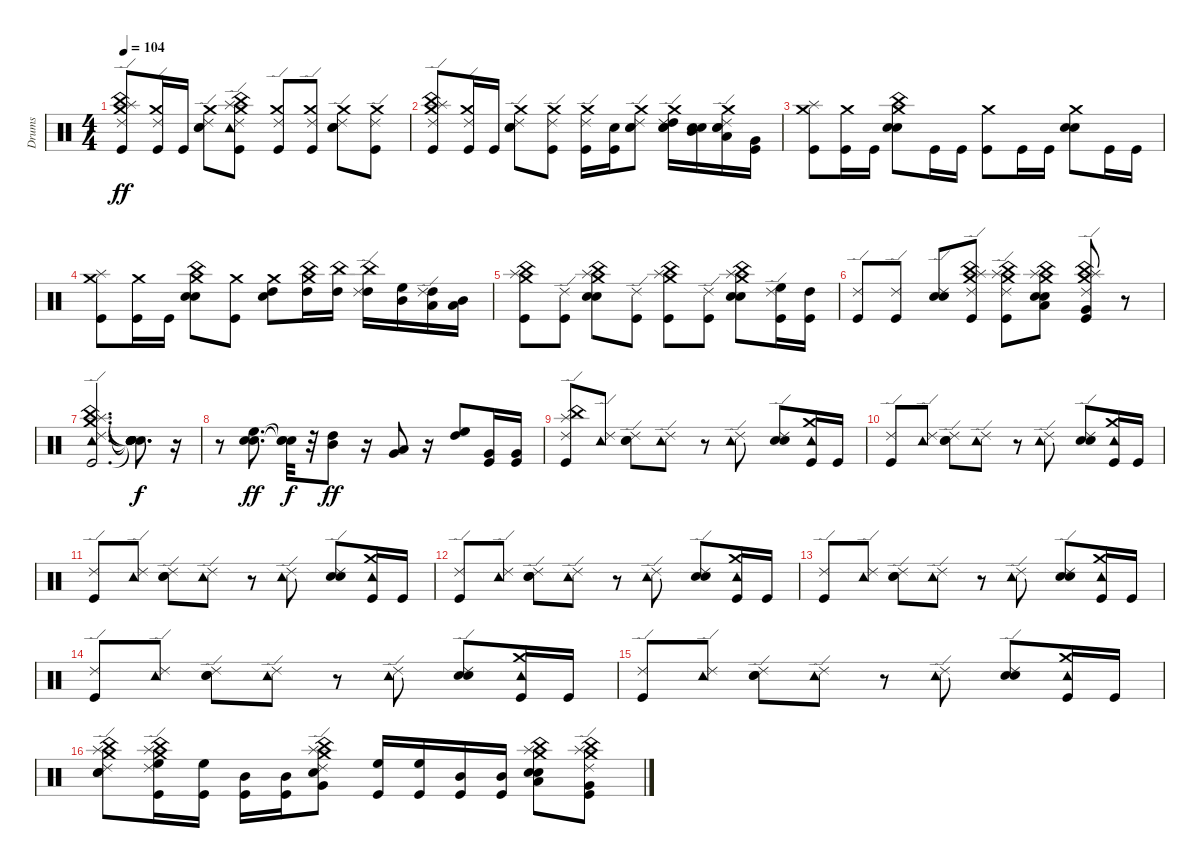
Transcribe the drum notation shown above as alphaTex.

\track ("Drums" "Drums") {instrument percussion}
\staff {score}
\articulation defaults
\ts (4 4)
\tempo 104
\clef neutral
\ks c
("Kick (hit)" "China (hit)" "Splash (hit)" "Crash medium (hit)" "Ride (edge) 2").8{dy ff} ("Kick (hit)" "Crash medium (hit)" "Ride (edge) 2").16 "Kick (hit)".16 ("Snare (hit) 2" "Electric Snare (hit)" "Crash medium (hit)" "Ride (edge) 2").8 ("Kick (hit)" "China (hit)" "Tambourine (hit)" "Splash (hit)" "Crash medium (hit)" "Ride (edge) 2").8 ("Kick (hit)" "Crash medium (hit)" "Ride (edge) 2").8 ("Kick (hit)" "Crash medium (hit)" "Ride (edge) 2").8 ("Snare (hit) 2" "Electric Snare (hit)" "Crash medium (hit)" "Ride (edge) 2").8 ("Kick (hit)" "Crash medium (hit)" "Ride (edge) 2").8 |
("Kick (hit)" "China (hit)" "Splash (hit)" "Crash medium (hit)" "Ride (edge) 2").8 ("Kick (hit)" "Crash medium (hit)" "Ride (edge) 2").16 "Kick (hit)".16 ("Snare (hit) 2" "Electric Snare (hit)" "Crash medium (hit)" "Ride (edge) 2").8 ("Kick (hit)" "Crash medium (hit)" "Ride (edge) 2").8 ("Kick (hit)" "Crash medium (hit)" "Ride (edge) 2").16 ("Kick (hit)" "Snare (hit) 2").16 ("Snare (hit) 2" "Electric Snare (hit)" "Crash medium (hit)" "Ride (edge) 2").8 ("Snare (hit) 2" "Electric Snare (hit)" "High Tom (hit)" "Crash medium (hit)" "Ride (edge) 2").16 ("Snare (hit) 2" "Electric Snare (hit)" "Mid Tom (hit)").16 ("Snare (hit) 2" "Electric Snare (hit)" "Low Tom (hit)" "Crash medium (hit)" "Ride (edge) 2").16 ("Kick (hit)" "Very Low Tom (hit)").16 |
("Kick (hit)" "Splash (hit)" "Crash medium (hit)").8 ("Kick (hit)" "Crash medium (hit)").16 "Kick (hit)".16 ("Snare (hit) 2" "Electric Snare (hit)" "China (hit)" "Crash medium (hit)").8 "Kick (hit)".16 "Kick (hit)".16 ("Kick (hit)" "Crash medium (hit)").8 "Kick (hit)".16 "Kick (hit)".16 ("Snare (hit) 2" "Electric Snare (hit)" "Crash medium (hit)").8 "Kick (hit)".16 "Kick (hit)".16 |
("Kick (hit)" "Splash (hit)" "Crash medium (hit)").8 ("Kick (hit)" "Crash medium (hit)").16 "Kick (hit)".16 ("Snare (hit) 2" "Electric Snare (hit)" "China (hit)" "Crash medium (hit)").8 ("Kick (hit)" "Crash medium (hit)").8 ("Snare (hit) 2" "High Tom (hit)" "Crash medium (hit)").8 ("High Tom (hit)" "China (hit)" "Crash medium (hit)").16 ("High Tom (hit)" "China (hit)").16 ("High Tom (hit)" "China (hit)" "Ride (edge) 2").16 ("Mid Tom (hit)" "High Floor Tom (hit)").16 ("Low Tom (hit)" "High Tom (hit)" "Ride (edge) 2").16 ("Low Tom (hit)" "Mid Tom (hit)").16 |
("Kick (hit)" "China (hit)" "Splash (hit)" "Crash medium (hit)").8 ("Kick (hit)" "Ride (edge) 2").8 ("Snare (hit) 2" "Electric Snare (hit)" "China (hit)" "Splash (hit)" "Crash medium (hit)").8 ("Kick (hit)" "Ride (edge) 2").8 ("Kick (hit)" "China (hit)" "Splash (hit)" "Crash medium (hit)").8 ("Kick (hit)" "Ride (edge) 2").8 ("Snare (hit) 2" "Electric Snare (hit)" "China (hit)" "Splash (hit)" "Crash medium (hit)").8 ("Kick (hit)" "High Floor Tom (hit)" "Ride (edge) 2").16 ("Kick (hit)" "High Tom (hit)").16 |
("Kick (hit)" "Ride (edge) 2").8 ("Kick (hit)" "Ride (edge) 2").8 ("Snare (hit) 2" "Electric Snare (hit)" "Ride (edge) 2").8 ("Kick (hit)" "China (hit)" "Splash (hit)" "Crash medium (hit)" "Ride (edge) 2").8 ("Kick (hit)" "China (hit)" "Splash (hit)" "Crash medium (hit)" "Ride (edge) 2").8 ("Snare (hit) 2" "Electric Snare (hit)" "Low Tom (hit)" "China (hit)" "Splash (hit)" "Crash medium (hit)").8 ("Kick (hit)" "Very Low Tom (hit)" "China (hit)" "Splash (hit)" "Crash medium (hit)" "Ride (edge) 2").8 r.8 |
("Kick (hit)" "China (hit)" "Tambourine (hit)" "Splash (hit)" "Crash medium (hit)" "Ride (edge) 2").2{d} ("Snare (hit)"{t} "Snare (hit)"{t} "Snare (hit)"{t} "Snare (hit)"{t} "Snare (hit)"{t} "Snare (hit)"{t}).8{d dy f} r.16 |
r.8 ("Snare (hit) 2" "Electric Snare (hit)" "High Floor Tom (hit)").8{d dy ff} ("Snare (hit)"{t} "Snare (hit)"{t} "Snare (hit)"{t}).32{dy f} r.32 ("Mid Tom (hit)" "High Tom (hit)").8{dy ff} r.16 ("Very Low Tom (hit)" "Low Tom (hit)").8 r.16 ("High Tom (hit)" "High Floor Tom (hit)").8 ("Kick (hit)" "Very Low Tom (hit)").16 ("Kick (hit)" "Very Low Tom (hit)").16 |
("Kick (hit)" "China (hit)" "Splash (hit)" "Ride (edge) 2").8 ("Tambourine (hit)" "Ride (edge) 2").8 ("Snare (hit) 2" "Electric Snare (hit)" "Ride (edge) 2").8 ("Tambourine (hit)" "Ride (edge) 2").8 r.8 ("Tambourine (hit)" "Ride (edge) 2").8 ("Snare (hit) 2" "Electric Snare (hit)" "Ride (edge) 2").8 ("Kick (hit)" "Tambourine (hit)" "Crash medium (hit)").16 "Kick (hit)".16 |
("Kick (hit)" "Ride (edge) 2").8 ("Tambourine (hit)" "Ride (edge) 2").8 ("Snare (hit) 2" "Electric Snare (hit)" "Ride (edge) 2").8 ("Tambourine (hit)" "Ride (edge) 2").8 r.8 ("Tambourine (hit)" "Ride (edge) 2").8 ("Snare (hit) 2" "Electric Snare (hit)" "Ride (edge) 2").8 ("Kick (hit)" "Tambourine (hit)" "Crash medium (hit)").16 "Kick (hit)".16 |
("Kick (hit)" "Ride (edge) 2").8 ("Tambourine (hit)" "Ride (edge) 2").8 ("Snare (hit) 2" "Electric Snare (hit)" "Ride (edge) 2").8 ("Tambourine (hit)" "Ride (edge) 2").8 r.8 ("Tambourine (hit)" "Ride (edge) 2").8 ("Snare (hit) 2" "Electric Snare (hit)" "Ride (edge) 2").8 ("Kick (hit)" "Tambourine (hit)" "Crash medium (hit)").16 "Kick (hit)".16 |
("Kick (hit)" "Ride (edge) 2").8 ("Tambourine (hit)" "Ride (edge) 2").8 ("Snare (hit) 2" "Electric Snare (hit)" "Ride (edge) 2").8 ("Tambourine (hit)" "Ride (edge) 2").8 r.8 ("Tambourine (hit)" "Ride (edge) 2").8 ("Snare (hit) 2" "Electric Snare (hit)" "Ride (edge) 2").8 ("Kick (hit)" "Tambourine (hit)" "Crash medium (hit)").16 "Kick (hit)".16 |
("Kick (hit)" "Ride (edge) 2").8 ("Tambourine (hit)" "Ride (edge) 2").8 ("Snare (hit) 2" "Electric Snare (hit)" "Ride (edge) 2").8 ("Tambourine (hit)" "Ride (edge) 2").8 r.8 ("Tambourine (hit)" "Ride (edge) 2").8 ("Snare (hit) 2" "Electric Snare (hit)" "Ride (edge) 2").8 ("Kick (hit)" "Tambourine (hit)" "Crash medium (hit)").16 "Kick (hit)".16 |
("Kick (hit)" "Ride (edge) 2").8 ("Tambourine (hit)" "Ride (edge) 2").8 ("Snare (hit) 2" "Electric Snare (hit)" "Ride (edge) 2").8 ("Tambourine (hit)" "Ride (edge) 2").8 r.8 ("Tambourine (hit)" "Ride (edge) 2").8 ("Snare (hit) 2" "Electric Snare (hit)" "Ride (edge) 2").8 ("Kick (hit)" "Tambourine (hit)" "Crash medium (hit)").16 "Kick (hit)".16 |
("Kick (hit)" "Ride (edge) 2").8 ("Tambourine (hit)" "Ride (edge) 2").8 ("Snare (hit) 2" "Electric Snare (hit)" "Ride (edge) 2").8 ("Tambourine (hit)" "Ride (edge) 2").8 r.8 ("Tambourine (hit)" "Ride (edge) 2").8 ("Snare (hit) 2" "Electric Snare (hit)" "Ride (edge) 2").8 ("Kick (hit)" "Tambourine (hit)" "Crash medium (hit)").16 "Kick (hit)".16 |
("Snare (hit) 2" "Electric Snare (hit)" "China (hit)" "Splash (hit)" "Crash medium (hit)" "Ride (edge) 2").8 ("Kick (hit)" "High Floor Tom (hit)" "China (hit)" "Splash (hit)" "Crash medium (hit)" "Ride (edge) 2").16 ("Kick (hit)" "High Floor Tom (hit)").16 ("Kick (hit)" "Mid Tom (hit)").16 ("Kick (hit)" "Mid Tom (hit)").16 ("Electric Snare (hit)" "Very Low Tom (hit)" "China (hit)" "Splash (hit)" "Crash medium (hit)" "Ride (edge) 2").8 ("Kick (hit)" "High Floor Tom (hit)").16 ("Kick (hit)" "High Floor Tom (hit)").16 ("Kick (hit)" "Mid Tom (hit)").16 ("Kick (hit)" "Mid Tom (hit)").16 ("Snare (hit) 2" "Electric Snare (hit)" "Low Tom (hit)" "China (hit)" "Splash (hit)" "Crash medium (hit)").8 ("Kick (hit)" "Very Low Tom (hit)" "China (hit)" "Splash (hit)" "Crash medium (hit)" "Ride (edge) 2").8
